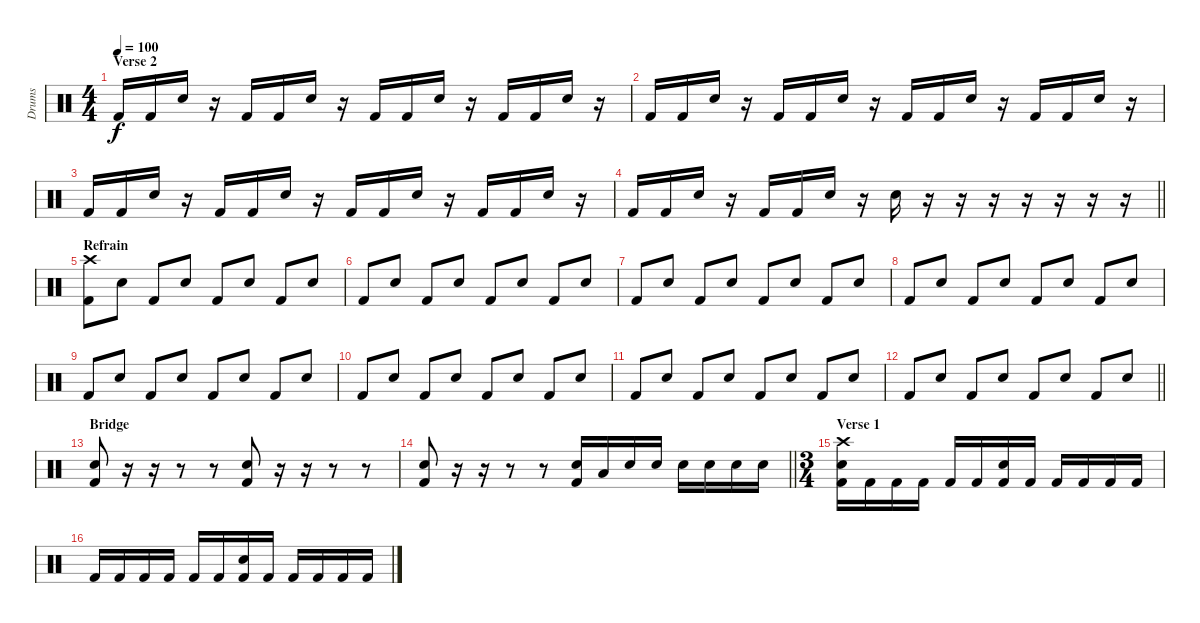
\track ("Drums" "Drums") {instrument percussion}
\staff {score}
\articulation defaults
\ts (4 4)
\section ("" "Verse 2")
\tempo 100
\clef neutral
\ks c "Kick (hit) 2".16{dy f} "Kick (hit) 2".16 "Snare (hit) 2".16
r.16 "Kick (hit) 2".16 "Kick (hit) 2".16 "Snare (hit) 2".16 r.16 "Kick (hit) 2".16 "Kick (hit) 2".16 "Snare (hit) 2".16 r.16 "Kick (hit) 2".16 "Kick (hit) 2".16 "Snare (hit) 2".16 r.16 |
"Kick (hit) 2".16 "Kick (hit) 2".16 "Snare (hit) 2".16 r.16 "Kick (hit) 2".16 "Kick (hit) 2".16 "Snare (hit) 2".16 r.16 "Kick (hit) 2".16 "Kick (hit) 2".16 "Snare (hit) 2".16 r.16 "Kick (hit) 2".16 "Kick (hit) 2".16 "Snare (hit) 2".16 r.16 |
"Kick (hit) 2".16 "Kick (hit) 2".16 "Snare (hit) 2".16 r.16 "Kick (hit) 2".16 "Kick (hit) 2".16 "Snare (hit) 2".16 r.16 "Kick (hit) 2".16 "Kick (hit) 2".16 "Snare (hit) 2".16 r.16 "Kick (hit) 2".16 "Kick (hit) 2".16 "Snare (hit) 2".16 r.16 |
\barLineRight lightlight "Kick (hit) 2".16 "Kick (hit) 2".16 "Snare (hit) 2".16
r.16 "Kick (hit) 2".16 "Kick (hit) 2".16 "Snare (hit) 2".16 r.16 "Snare (hit) 2".16 r.16 r.16 r.16 r.16 r.16 r.16 r.16 |
\section ("" "Refrain")
("Crash high (hit)" "Kick (hit) 2").8 "Snare (hit) 2".8 "Kick (hit) 2".8 "Snare (hit) 2".8 "Kick (hit) 2".8 "Snare (hit) 2".8 "Kick (hit) 2".8 "Snare (hit) 2".8 |
"Kick (hit) 2".8 "Snare (hit) 2".8 "Kick (hit) 2".8 "Snare (hit) 2".8 "Kick (hit) 2".8 "Snare (hit) 2".8 "Kick (hit) 2".8 "Snare (hit) 2".8 |
"Kick (hit) 2".8 "Snare (hit) 2".8 "Kick (hit) 2".8 "Snare (hit) 2".8 "Kick (hit) 2".8 "Snare (hit) 2".8 "Kick (hit) 2".8 "Snare (hit) 2".8 |
"Kick (hit) 2".8 "Snare (hit) 2".8 "Kick (hit) 2".8 "Snare (hit) 2".8 "Kick (hit) 2".8 "Snare (hit) 2".8 "Kick (hit) 2".8 "Snare (hit) 2".8 |
"Kick (hit) 2".8 "Snare (hit) 2".8 "Kick (hit) 2".8 "Snare (hit) 2".8 "Kick (hit) 2".8 "Snare (hit) 2".8 "Kick (hit) 2".8 "Snare (hit) 2".8 |
"Kick (hit) 2".8 "Snare (hit) 2".8 "Kick (hit) 2".8 "Snare (hit) 2".8 "Kick (hit) 2".8 "Snare (hit) 2".8 "Kick (hit) 2".8 "Snare (hit) 2".8 |
"Kick (hit) 2".8 "Snare (hit) 2".8 "Kick (hit) 2".8 "Snare (hit) 2".8 "Kick (hit) 2".8 "Snare (hit) 2".8 "Kick (hit) 2".8 "Snare (hit) 2".8 |
\barLineRight lightlight "Kick (hit) 2".8 "Snare (hit) 2".8 "Kick (hit) 2".8 "Snare (hit) 2".8 "Kick (hit) 2".8 "Snare (hit) 2".8 "Kick (hit) 2".8 "Snare (hit) 2".8
|
\section ("" "Bridge")
("Snare (hit) 2" "Kick (hit) 2").8 r.16 r.16 r.8 r.8 ("Snare (hit) 2" "Kick (hit) 2").8 r.16 r.16 r.8 r.8 |
\barLineRight lightlight
("Snare (hit) 2" "Kick (hit) 2").8 r.16 r.16 r.8 r.8 ("Snare (hit) 2" "Kick (hit) 2").16 "Low Floor Tom (hit)".16 "Snare (hit) 2".16 "Snare (hit) 2".16 "Snare (hit) 2".16 "Snare (hit) 2".16 "Snare (hit) 2".16 "Snare (hit) 2".16 |
\ts (3 4)
\section ("" "Verse 1")
("Crash high (hit)" "Snare (hit) 2" "Kick (hit) 2").16 "Kick (hit) 2".16 "Kick (hit) 2".16 "Kick (hit) 2".16 "Kick (hit) 2".16 "Kick (hit) 2".16 ("Snare (hit) 2" "Kick (hit) 2").16 "Kick (hit) 2".16 "Kick (hit) 2".16 "Kick (hit) 2".16 "Kick (hit) 2".16 "Kick (hit) 2".16 |
"Kick (hit) 2".16 "Kick (hit) 2".16 "Kick (hit) 2".16 "Kick (hit) 2".16 "Kick (hit) 2".16 "Kick (hit) 2".16 ("Snare (hit) 2" "Kick (hit) 2").16 "Kick (hit) 2".16 "Kick (hit) 2".16 "Kick (hit) 2".16 "Kick (hit) 2".16 "Kick (hit) 2".16
